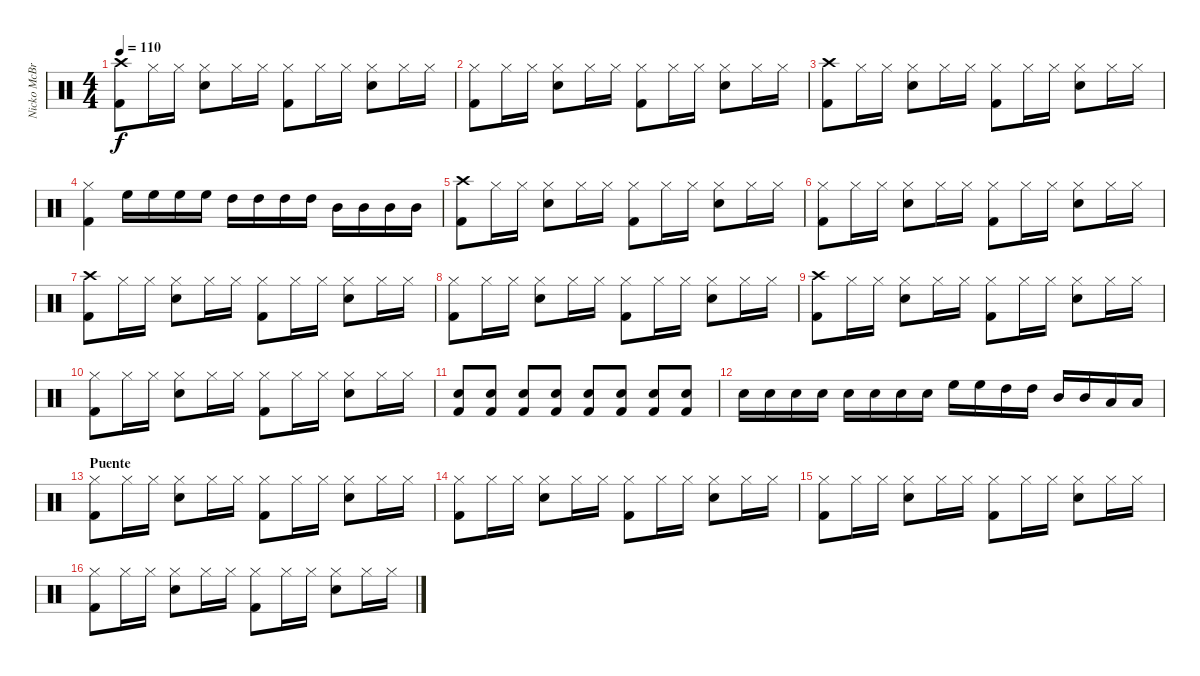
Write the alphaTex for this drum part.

\track ("Nicko McBrain" "Nicko McBr") {instrument percussion}
\staff {score}
\articulation defaults
\ts (4 4)
\tempo 110
\clef neutral
\ks c
("Crash high (hit)" "Kick (hit) 2").8{dy f} "Hi-Hat (closed)".16 "Hi-Hat (closed)".16 ("Hi-Hat (closed)" "Snare (hit) 2").8 "Hi-Hat (closed)".16 "Hi-Hat (closed)".16 ("Hi-Hat (closed)" "Kick (hit) 2").8 "Hi-Hat (closed)".16 "Hi-Hat (closed)".16 ("Hi-Hat (closed)" "Snare (hit) 2").8 "Hi-Hat (closed)".16 "Hi-Hat (closed)".16 |
("Hi-Hat (closed)" "Kick (hit) 2").8 "Hi-Hat (closed)".16 "Hi-Hat (closed)".16 ("Hi-Hat (closed)" "Snare (hit) 2").8 "Hi-Hat (closed)".16 "Hi-Hat (closed)".16 ("Hi-Hat (closed)" "Kick (hit) 2").8 "Hi-Hat (closed)".16 "Hi-Hat (closed)".16 ("Hi-Hat (closed)" "Snare (hit) 2").8 "Hi-Hat (closed)".16 "Hi-Hat (closed)".16 |
("Crash high (hit)" "Kick (hit) 2").8 "Hi-Hat (closed)".16 "Hi-Hat (closed)".16 ("Hi-Hat (closed)" "Snare (hit) 2").8 "Hi-Hat (closed)".16 "Hi-Hat (closed)".16 ("Hi-Hat (closed)" "Kick (hit) 2").8 "Hi-Hat (closed)".16 "Hi-Hat (closed)".16 ("Hi-Hat (closed)" "Snare (hit) 2").8 "Hi-Hat (closed)".16 "Hi-Hat (closed)".16 |
("Hi-Hat (closed)" "Kick (hit) 2").4 "High Floor Tom (hit)".16 "High Floor Tom (hit)".16 "High Floor Tom (hit)".16 "High Floor Tom (hit)".16 "High Tom (hit)".16 "High Tom (hit)".16 "High Tom (hit)".16 "High Tom (hit)".16 "Mid Tom (hit)".16 "Mid Tom (hit)".16 "Mid Tom (hit)".16 "Mid Tom (hit)".16 |
("Crash high (hit)" "Kick (hit) 2").8 "Hi-Hat (closed)".16 "Hi-Hat (closed)".16 ("Hi-Hat (closed)" "Snare (hit) 2").8 "Hi-Hat (closed)".16 "Hi-Hat (closed)".16 ("Hi-Hat (closed)" "Kick (hit) 2").8 "Hi-Hat (closed)".16 "Hi-Hat (closed)".16 ("Hi-Hat (closed)" "Snare (hit) 2").8 "Hi-Hat (closed)".16 "Hi-Hat (closed)".16 |
("Hi-Hat (closed)" "Kick (hit) 2").8 "Hi-Hat (closed)".16 "Hi-Hat (closed)".16 ("Hi-Hat (closed)" "Snare (hit) 2").8 "Hi-Hat (closed)".16 "Hi-Hat (closed)".16 ("Hi-Hat (closed)" "Kick (hit) 2").8 "Hi-Hat (closed)".16 "Hi-Hat (closed)".16 ("Hi-Hat (closed)" "Snare (hit) 2").8 "Hi-Hat (closed)".16 "Hi-Hat (closed)".16 |
("Crash high (hit)" "Kick (hit) 2").8 "Hi-Hat (closed)".16 "Hi-Hat (closed)".16 ("Hi-Hat (closed)" "Snare (hit) 2").8 "Hi-Hat (closed)".16 "Hi-Hat (closed)".16 ("Hi-Hat (closed)" "Kick (hit) 2").8 "Hi-Hat (closed)".16 "Hi-Hat (closed)".16 ("Hi-Hat (closed)" "Snare (hit) 2").8 "Hi-Hat (closed)".16 "Hi-Hat (closed)".16 |
("Hi-Hat (closed)" "Kick (hit) 2").8 "Hi-Hat (closed)".16 "Hi-Hat (closed)".16 ("Hi-Hat (closed)" "Snare (hit) 2").8 "Hi-Hat (closed)".16 "Hi-Hat (closed)".16 ("Hi-Hat (closed)" "Kick (hit) 2").8 "Hi-Hat (closed)".16 "Hi-Hat (closed)".16 ("Hi-Hat (closed)" "Snare (hit) 2").8 "Hi-Hat (closed)".16 "Hi-Hat (closed)".16 |
("Crash high (hit)" "Kick (hit) 2").8 "Hi-Hat (closed)".16 "Hi-Hat (closed)".16 ("Hi-Hat (closed)" "Snare (hit) 2").8 "Hi-Hat (closed)".16 "Hi-Hat (closed)".16 ("Hi-Hat (closed)" "Kick (hit) 2").8 "Hi-Hat (closed)".16 "Hi-Hat (closed)".16 ("Hi-Hat (closed)" "Snare (hit) 2").8 "Hi-Hat (closed)".16 "Hi-Hat (closed)".16 |
("Hi-Hat (closed)" "Kick (hit) 2").8 "Hi-Hat (closed)".16 "Hi-Hat (closed)".16 ("Hi-Hat (closed)" "Snare (hit) 2").8 "Hi-Hat (closed)".16 "Hi-Hat (closed)".16 ("Hi-Hat (closed)" "Kick (hit) 2").8 "Hi-Hat (closed)".16 "Hi-Hat (closed)".16 ("Hi-Hat (closed)" "Snare (hit) 2").8 "Hi-Hat (closed)".16 "Hi-Hat (closed)".16 |
("Kick (hit) 2" "Snare (hit) 2").8 ("Kick (hit) 2" "Snare (hit) 2").8 ("Kick (hit) 2" "Snare (hit) 2").8 ("Kick (hit) 2" "Snare (hit) 2").8 ("Kick (hit) 2" "Snare (hit) 2").8 ("Kick (hit) 2" "Snare (hit) 2").8 ("Kick (hit) 2" "Snare (hit) 2").8 ("Kick (hit) 2" "Snare (hit) 2").8 |
"Snare (hit) 2".16 "Snare (hit) 2".16 "Snare (hit) 2".16 "Snare (hit) 2".16 "Snare (hit) 2".16 "Snare (hit) 2".16 "Snare (hit) 2".16 "Snare (hit) 2".16 "High Floor Tom (hit)".16 "High Floor Tom (hit)".16 "High Tom (hit)".16 "High Tom (hit)".16 "Mid Tom (hit)".16 "Mid Tom (hit)".16 "Low Tom (hit)".16 "Low Tom (hit)".16 |
\section ("" "Puente")
("Hi-Hat (closed)" "Kick (hit) 2").8 "Hi-Hat (closed)".16 "Hi-Hat (closed)".16 ("Hi-Hat (closed)" "Snare (hit) 2").8 "Hi-Hat (closed)".16 "Hi-Hat (closed)".16 ("Hi-Hat (closed)" "Kick (hit) 2").8 "Hi-Hat (closed)".16 "Hi-Hat (closed)".16 ("Hi-Hat (closed)" "Snare (hit) 2").8 "Hi-Hat (closed)".16 "Hi-Hat (closed)".16 |
("Hi-Hat (closed)" "Kick (hit) 2").8 "Hi-Hat (closed)".16 "Hi-Hat (closed)".16 ("Hi-Hat (closed)" "Snare (hit) 2").8 "Hi-Hat (closed)".16 "Hi-Hat (closed)".16 ("Hi-Hat (closed)" "Kick (hit) 2").8 "Hi-Hat (closed)".16 "Hi-Hat (closed)".16 ("Hi-Hat (closed)" "Snare (hit) 2").8 "Hi-Hat (closed)".16 "Hi-Hat (closed)".16 |
("Hi-Hat (closed)" "Kick (hit) 2").8 "Hi-Hat (closed)".16 "Hi-Hat (closed)".16 ("Hi-Hat (closed)" "Snare (hit) 2").8 "Hi-Hat (closed)".16 "Hi-Hat (closed)".16 ("Hi-Hat (closed)" "Kick (hit) 2").8 "Hi-Hat (closed)".16 "Hi-Hat (closed)".16 ("Hi-Hat (closed)" "Snare (hit) 2").8 "Hi-Hat (closed)".16 "Hi-Hat (closed)".16 |
("Hi-Hat (closed)" "Kick (hit) 2").8 "Hi-Hat (closed)".16 "Hi-Hat (closed)".16 ("Hi-Hat (closed)" "Snare (hit) 2").8 "Hi-Hat (closed)".16 "Hi-Hat (closed)".16 ("Hi-Hat (closed)" "Kick (hit) 2").8 "Hi-Hat (closed)".16 "Hi-Hat (closed)".16 ("Hi-Hat (closed)" "Snare (hit) 2").8 "Hi-Hat (closed)".16 "Hi-Hat (closed)".16
